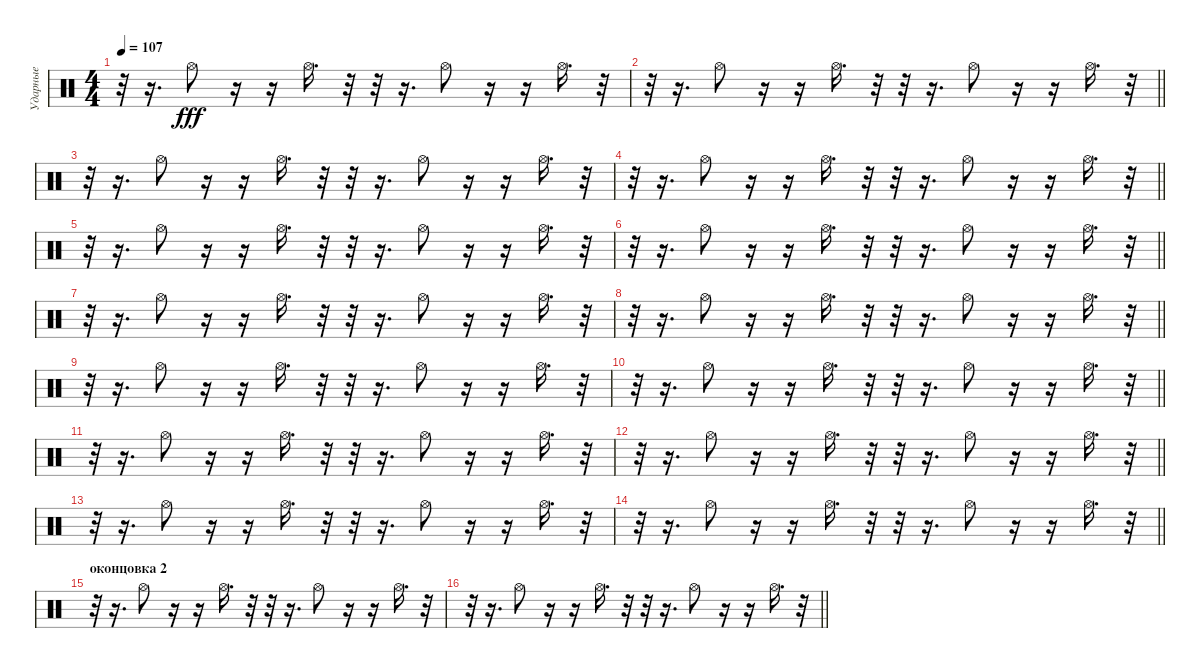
\track ("Ударные" "Ударные") {solo instrument percussion}
\staff {score}
\articulation defaults
\ts (4 4)
\tempo 107
\clef neutral
\ks c
r.32{dy fff} r.16{d} "Hi-Hat (open)".8 r.16 r.16 "Hi-Hat (open)".16{d} r.32 r.32 r.16{d} "Hi-Hat (open)".8 r.16 r.16 "Hi-Hat (open)".16{d} r.32 |
\barLineRight lightlight
r.32 r.16{d} "Hi-Hat (open)".8 r.16 r.16 "Hi-Hat (open)".16{d} r.32 r.32 r.16{d} "Hi-Hat (open)".8 r.16 r.16 "Hi-Hat (open)".16{d} r.32 |
r.32 r.16{d} "Hi-Hat (open)".8 r.16 r.16 "Hi-Hat (open)".16{d} r.32 r.32 r.16{d} "Hi-Hat (open)".8 r.16 r.16 "Hi-Hat (open)".16{d} r.32 |
\barLineRight lightlight
r.32 r.16{d} "Hi-Hat (open)".8 r.16 r.16 "Hi-Hat (open)".16{d} r.32 r.32 r.16{d} "Hi-Hat (open)".8 r.16 r.16 "Hi-Hat (open)".16{d} r.32 |
r.32 r.16{d} "Hi-Hat (open)".8 r.16 r.16 "Hi-Hat (open)".16{d} r.32 r.32 r.16{d} "Hi-Hat (open)".8 r.16 r.16 "Hi-Hat (open)".16{d} r.32 |
\barLineRight lightlight
r.32 r.16{d} "Hi-Hat (open)".8 r.16 r.16 "Hi-Hat (open)".16{d} r.32 r.32 r.16{d} "Hi-Hat (open)".8 r.16 r.16 "Hi-Hat (open)".16{d} r.32 |
r.32 r.16{d} "Hi-Hat (open)".8 r.16 r.16 "Hi-Hat (open)".16{d} r.32 r.32 r.16{d} "Hi-Hat (open)".8 r.16 r.16 "Hi-Hat (open)".16{d} r.32 |
\barLineRight lightlight
r.32 r.16{d} "Hi-Hat (open)".8 r.16 r.16 "Hi-Hat (open)".16{d} r.32 r.32 r.16{d} "Hi-Hat (open)".8 r.16 r.16 "Hi-Hat (open)".16{d} r.32 |
r.32 r.16{d} "Hi-Hat (open)".8 r.16 r.16 "Hi-Hat (open)".16{d} r.32 r.32 r.16{d} "Hi-Hat (open)".8 r.16 r.16 "Hi-Hat (open)".16{d} r.32 |
\barLineRight lightlight
r.32 r.16{d} "Hi-Hat (open)".8 r.16 r.16 "Hi-Hat (open)".16{d} r.32 r.32 r.16{d} "Hi-Hat (open)".8 r.16 r.16 "Hi-Hat (open)".16{d} r.32 |
r.32 r.16{d} "Hi-Hat (open)".8 r.16 r.16 "Hi-Hat (open)".16{d} r.32 r.32 r.16{d} "Hi-Hat (open)".8 r.16 r.16 "Hi-Hat (open)".16{d} r.32 |
\barLineRight lightlight
r.32 r.16{d} "Hi-Hat (open)".8 r.16 r.16 "Hi-Hat (open)".16{d} r.32 r.32 r.16{d} "Hi-Hat (open)".8 r.16 r.16 "Hi-Hat (open)".16{d} r.32 |
r.32 r.16{d} "Hi-Hat (open)".8 r.16 r.16 "Hi-Hat (open)".16{d} r.32 r.32 r.16{d} "Hi-Hat (open)".8 r.16 r.16 "Hi-Hat (open)".16{d} r.32 |
\barLineRight lightlight
r.32 r.16{d} "Hi-Hat (open)".8 r.16 r.16 "Hi-Hat (open)".16{d} r.32 r.32 r.16{d} "Hi-Hat (open)".8 r.16 r.16 "Hi-Hat (open)".16{d} r.32 |
\section ("" "оконцовка 2")
r.32 r.16{d} "Hi-Hat (open)".8 r.16 r.16 "Hi-Hat (open)".16{d} r.32 r.32 r.16{d} "Hi-Hat (open)".8 r.16 r.16 "Hi-Hat (open)".16{d} r.32 |
\barLineRight lightlight
r.32 r.16{d} "Hi-Hat (open)".8 r.16 r.16 "Hi-Hat (open)".16{d} r.32 r.32 r.16{d} "Hi-Hat (open)".8 r.16 r.16 "Hi-Hat (open)".16{d} r.32
